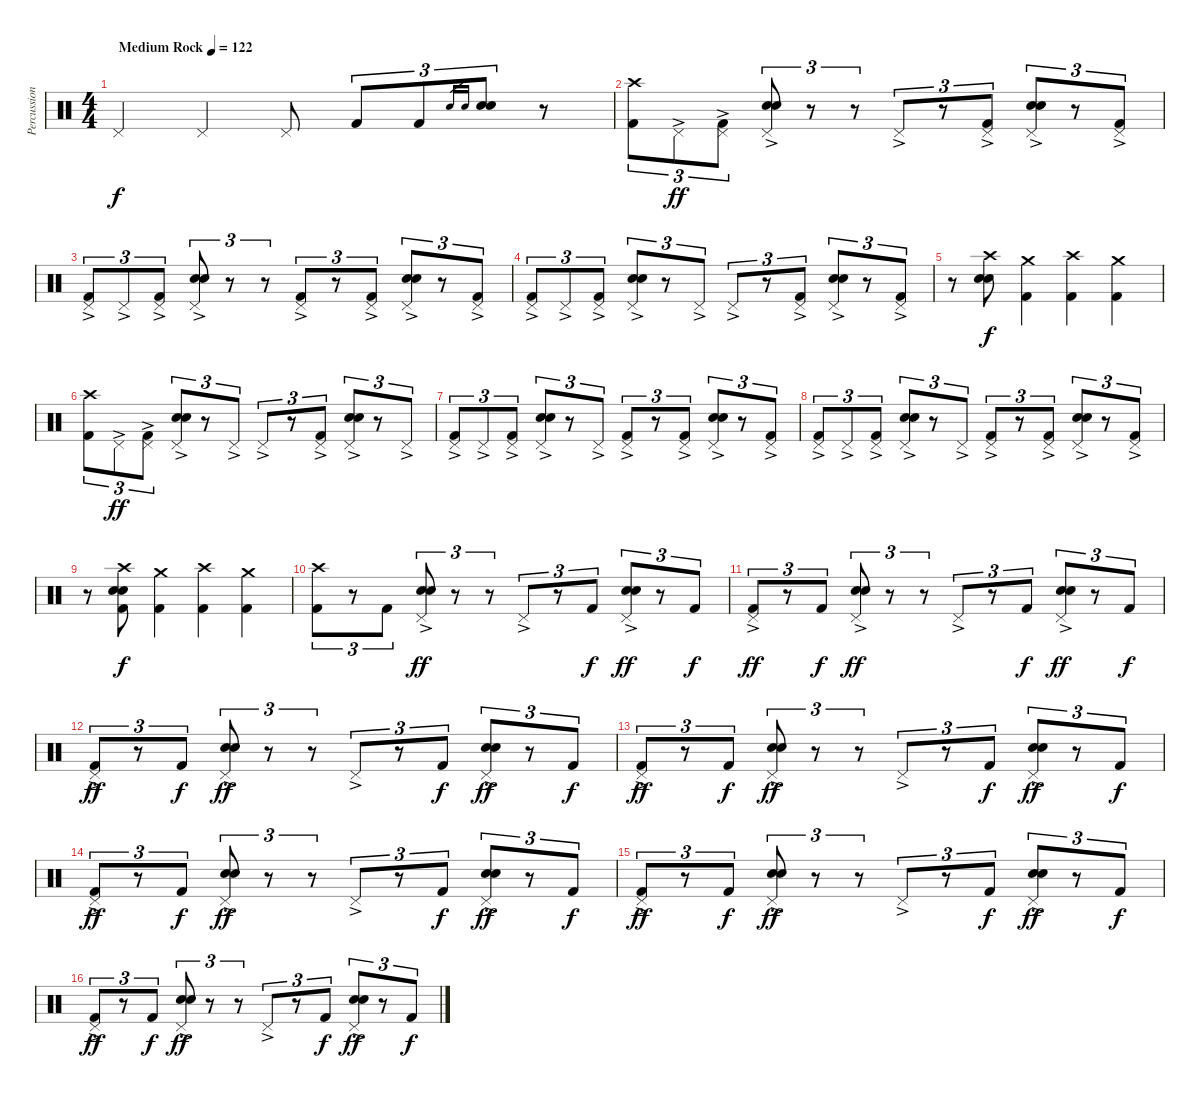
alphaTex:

\track ("Percussion" "Percussion") {instrument percussion}
\staff {score}
\articulation defaults
\ts (4 4)
\tempo (122 "Medium Rock")
\clef neutral
\ks c "Pedal Hi-Hat (hit)".4{dy f} "Pedal Hi-Hat (hit)".4 "Pedal Hi-Hat (hit)".8 "Kick (hit) 2".8{tu (3 2)} "Kick (hit) 2".8{tu (3 2)} "Snare (hit) 2".16{gr} "Electric Snare (hit)".16{gr}
("Snare (hit) 2" "Electric Snare (hit)").8{tu (3 2)} r.8 |
("Crash high (hit)" "Kick (hit) 2").8{tu (3 2)} "Pedal Hi-Hat (hit)"{ac}.8{tu (3 2) dy ff} ("Pedal Hi-Hat (hit)"{ac} "Kick (hit) 2").8{tu (3 2)} ("Pedal Hi-Hat (hit)"{ac} "Snare (hit) 2" "Electric Snare (hit)").8{tu (3 2)} r.8{tu (3 2)} r.8{tu (3 2)} "Pedal Hi-Hat (hit)"{ac}.8{tu (3 2)} r.8{tu (3 2)} ("Pedal Hi-Hat (hit)"{ac} "Kick (hit) 2").8{tu (3 2)} ("Pedal Hi-Hat (hit)"{ac} "Snare (hit) 2" "Electric Snare (hit)").8{tu (3 2)} r.8{tu (3 2)} ("Pedal Hi-Hat (hit)"{ac} "Kick (hit) 2").8{tu (3 2)} |
("Pedal Hi-Hat (hit)"{ac} "Kick (hit) 2").8{tu (3 2)} "Pedal Hi-Hat (hit)"{ac}.8{tu (3 2)} ("Pedal Hi-Hat (hit)"{ac} "Kick (hit) 2").8{tu (3 2)} ("Pedal Hi-Hat (hit)"{ac} "Snare (hit) 2" "Electric Snare (hit)").8{tu (3 2)} r.8{tu (3 2)} r.8{tu (3 2)} ("Pedal Hi-Hat (hit)"{ac} "Kick (hit) 2").8{tu (3 2)} r.8{tu (3 2)} ("Pedal Hi-Hat (hit)"{ac} "Kick (hit) 2").8{tu (3 2)} ("Pedal Hi-Hat (hit)"{ac} "Snare (hit) 2" "Electric Snare (hit)").8{tu (3 2)} r.8{tu (3 2)} ("Pedal Hi-Hat (hit)"{ac} "Kick (hit) 2").8{tu (3 2)} |
("Pedal Hi-Hat (hit)"{ac} "Kick (hit) 2").8{tu (3 2)} "Pedal Hi-Hat (hit)"{ac}.8{tu (3 2)} ("Pedal Hi-Hat (hit)"{ac} "Kick (hit) 2").8{tu (3 2)} ("Pedal Hi-Hat (hit)"{ac} "Snare (hit) 2" "Electric Snare (hit)").8{tu (3 2)} r.8{tu (3 2)} "Pedal Hi-Hat (hit)"{ac}.8{tu (3 2)} "Pedal Hi-Hat (hit)"{ac}.8{tu (3 2)} r.8{tu (3 2)} ("Pedal Hi-Hat (hit)"{ac} "Kick (hit) 2").8{tu (3 2)} ("Pedal Hi-Hat (hit)"{ac} "Snare (hit) 2" "Electric Snare (hit)").8{tu (3 2)} r.8{tu (3 2)} ("Pedal Hi-Hat (hit)"{ac} "Kick (hit) 2").8{tu (3 2)} |
r.8 ("Crash high (hit)" "Snare (hit) 2" "Electric Snare (hit)").8{dy f} ("Crash medium (hit)" "Kick (hit) 2").4 ("Crash high (hit)" "Kick (hit) 2").4 ("Crash medium (hit)" "Kick (hit) 2").4 |
("Crash high (hit)" "Kick (hit) 2").8{tu (3 2)} "Pedal Hi-Hat (hit)"{ac}.8{tu (3 2) dy ff} ("Pedal Hi-Hat (hit)"{ac} "Kick (hit) 2").8{tu (3 2)} ("Pedal Hi-Hat (hit)"{ac} "Snare (hit) 2" "Electric Snare (hit)").8{tu (3 2)} r.8{tu (3 2)} "Pedal Hi-Hat (hit)"{ac}.8{tu (3 2)} "Pedal Hi-Hat (hit)"{ac}.8{tu (3 2)} r.8{tu (3 2)} ("Pedal Hi-Hat (hit)"{ac} "Kick (hit) 2").8{tu (3 2)} ("Pedal Hi-Hat (hit)"{ac} "Snare (hit) 2" "Electric Snare (hit)").8{tu (3 2)} r.8{tu (3 2)} "Pedal Hi-Hat (hit)"{ac}.8{tu (3 2)} |
("Pedal Hi-Hat (hit)"{ac} "Kick (hit) 2").8{tu (3 2)} "Pedal Hi-Hat (hit)"{ac}.8{tu (3 2)} ("Pedal Hi-Hat (hit)"{ac} "Kick (hit) 2").8{tu (3 2)} ("Pedal Hi-Hat (hit)"{ac} "Snare (hit) 2" "Electric Snare (hit)").8{tu (3 2)} r.8{tu (3 2)} "Pedal Hi-Hat (hit)"{ac}.8{tu (3 2)} ("Pedal Hi-Hat (hit)"{ac} "Kick (hit) 2").8{tu (3 2)} r.8{tu (3 2)} ("Pedal Hi-Hat (hit)"{ac} "Kick (hit) 2").8{tu (3 2)} ("Pedal Hi-Hat (hit)"{ac} "Snare (hit) 2" "Electric Snare (hit)").8{tu (3 2)} r.8{tu (3 2)} ("Pedal Hi-Hat (hit)"{ac} "Kick (hit) 2").8{tu (3 2)} |
("Pedal Hi-Hat (hit)"{ac} "Kick (hit) 2").8{tu (3 2)} "Pedal Hi-Hat (hit)"{ac}.8{tu (3 2)} ("Pedal Hi-Hat (hit)"{ac} "Kick (hit) 2").8{tu (3 2)} ("Pedal Hi-Hat (hit)"{ac} "Snare (hit) 2" "Electric Snare (hit)").8{tu (3 2)} r.8{tu (3 2)} "Pedal Hi-Hat (hit)"{ac}.8{tu (3 2)} ("Pedal Hi-Hat (hit)"{ac} "Kick (hit) 2").8{tu (3 2)} r.8{tu (3 2)} ("Pedal Hi-Hat (hit)"{ac} "Kick (hit) 2").8{tu (3 2)} ("Pedal Hi-Hat (hit)"{ac} "Snare (hit) 2" "Electric Snare (hit)").8{tu (3 2)} r.8{tu (3 2)} ("Pedal Hi-Hat (hit)"{ac} "Kick (hit) 2").8{tu (3 2)} |
r.8 ("Crash high (hit)" "Snare (hit) 2" "Electric Snare (hit)" "Kick (hit) 2").8{dy f} ("Crash medium (hit)" "Kick (hit) 2").4 ("Crash high (hit)" "Kick (hit) 2").4 ("Crash medium (hit)" "Kick (hit) 2").4 |
("Crash high (hit)" "Kick (hit) 2").8{tu (3 2)} r.8{tu (3 2)} "Kick (hit) 2".8{tu (3 2)} ("Pedal Hi-Hat (hit)"{ac} "Snare (hit) 2" "Electric Snare (hit)").8{tu (3 2) dy ff} r.8{tu (3 2)} r.8{tu (3 2)} "Pedal Hi-Hat (hit)"{ac}.8{tu (3 2)} r.8{tu (3 2)} "Kick (hit) 2".8{tu (3 2) dy f} ("Pedal Hi-Hat (hit)"{ac} "Snare (hit) 2" "Electric Snare (hit)").8{tu (3 2) dy ff} r.8{tu (3 2)} "Kick (hit) 2".8{tu (3 2) dy f} |
("Pedal Hi-Hat (hit)"{ac} "Kick (hit) 2").8{tu (3 2) dy ff} r.8{tu (3 2)} "Kick (hit) 2".8{tu (3 2) dy f} ("Pedal Hi-Hat (hit)"{ac} "Snare (hit) 2" "Electric Snare (hit)").8{tu (3 2) dy ff} r.8{tu (3 2)} r.8{tu (3 2)} "Pedal Hi-Hat (hit)"{ac}.8{tu (3 2)} r.8{tu (3 2)} "Kick (hit) 2".8{tu (3 2) dy f} ("Pedal Hi-Hat (hit)"{ac} "Snare (hit) 2" "Electric Snare (hit)").8{tu (3 2) dy ff} r.8{tu (3 2)} "Kick (hit) 2".8{tu (3 2) dy f} |
("Pedal Hi-Hat (hit)"{ac} "Kick (hit) 2").8{tu (3 2) dy ff} r.8{tu (3 2)} "Kick (hit) 2".8{tu (3 2) dy f} ("Pedal Hi-Hat (hit)"{ac} "Snare (hit) 2" "Electric Snare (hit)").8{tu (3 2) dy ff} r.8{tu (3 2)} r.8{tu (3 2)} "Pedal Hi-Hat (hit)"{ac}.8{tu (3 2)} r.8{tu (3 2)} "Kick (hit) 2".8{tu (3 2) dy f} ("Pedal Hi-Hat (hit)"{ac} "Snare (hit) 2" "Electric Snare (hit)").8{tu (3 2) dy ff} r.8{tu (3 2)} "Kick (hit) 2".8{tu (3 2) dy f} |
("Pedal Hi-Hat (hit)"{ac} "Kick (hit) 2").8{tu (3 2) dy ff} r.8{tu (3 2)} "Kick (hit) 2".8{tu (3 2) dy f} ("Pedal Hi-Hat (hit)"{ac} "Snare (hit) 2" "Electric Snare (hit)").8{tu (3 2) dy ff} r.8{tu (3 2)} r.8{tu (3 2)} "Pedal Hi-Hat (hit)"{ac}.8{tu (3 2)} r.8{tu (3 2)} "Kick (hit) 2".8{tu (3 2) dy f} ("Pedal Hi-Hat (hit)"{ac} "Snare (hit) 2" "Electric Snare (hit)").8{tu (3 2) dy ff} r.8{tu (3 2)} "Kick (hit) 2".8{tu (3 2) dy f} |
("Pedal Hi-Hat (hit)"{ac} "Kick (hit) 2").8{tu (3 2) dy ff} r.8{tu (3 2)} "Kick (hit) 2".8{tu (3 2) dy f} ("Pedal Hi-Hat (hit)"{ac} "Snare (hit) 2" "Electric Snare (hit)").8{tu (3 2) dy ff} r.8{tu (3 2)} r.8{tu (3 2)} "Pedal Hi-Hat (hit)"{ac}.8{tu (3 2)} r.8{tu (3 2)} "Kick (hit) 2".8{tu (3 2) dy f} ("Pedal Hi-Hat (hit)"{ac} "Snare (hit) 2" "Electric Snare (hit)").8{tu (3 2) dy ff} r.8{tu (3 2)} "Kick (hit) 2".8{tu (3 2) dy f} |
("Pedal Hi-Hat (hit)"{ac} "Kick (hit) 2").8{tu (3 2) dy ff} r.8{tu (3 2)} "Kick (hit) 2".8{tu (3 2) dy f} ("Pedal Hi-Hat (hit)"{ac} "Snare (hit) 2" "Electric Snare (hit)").8{tu (3 2) dy ff} r.8{tu (3 2)} r.8{tu (3 2)} "Pedal Hi-Hat (hit)"{ac}.8{tu (3 2)} r.8{tu (3 2)} "Kick (hit) 2".8{tu (3 2) dy f} ("Pedal Hi-Hat (hit)"{ac} "Snare (hit) 2" "Electric Snare (hit)").8{tu (3 2) dy ff} r.8{tu (3 2)} "Kick (hit) 2".8{tu (3 2) dy f} |
("Pedal Hi-Hat (hit)"{ac} "Kick (hit) 2").8{tu (3 2) dy ff} r.8{tu (3 2)} "Kick (hit) 2".8{tu (3 2) dy f} ("Pedal Hi-Hat (hit)"{ac} "Snare (hit) 2" "Electric Snare (hit)").8{tu (3 2) dy ff} r.8{tu (3 2)} r.8{tu (3 2)} "Pedal Hi-Hat (hit)"{ac}.8{tu (3 2)} r.8{tu (3 2)} "Kick (hit) 2".8{tu (3 2) dy f} ("Pedal Hi-Hat (hit)"{ac} "Snare (hit) 2" "Electric Snare (hit)").8{tu (3 2) dy ff} r.8{tu (3 2)} "Kick (hit) 2".8{tu (3 2) dy f}
